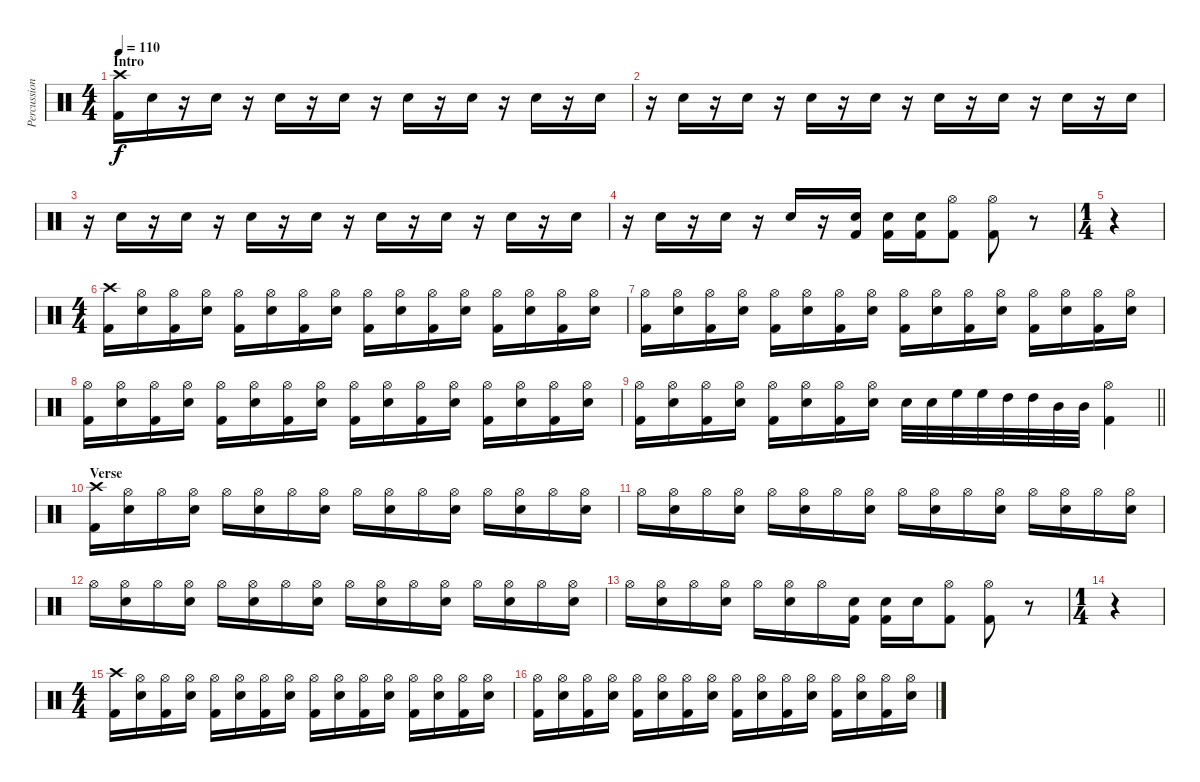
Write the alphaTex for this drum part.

\track ("Percussion" "Percussion") {instrument percussion}
\staff {score}
\articulation defaults
\ts (4 4)
\section ("" "Intro")
\tempo 110
\clef neutral
\ks c
("Crash high (hit)" "Kick (hit) 2").16{dy f} "Snare (hit) 2".16 r.16 "Snare (hit) 2".16 r.16 "Snare (hit) 2".16 r.16 "Snare (hit) 2".16 r.16 "Snare (hit) 2".16 r.16 "Snare (hit) 2".16 r.16 "Snare (hit) 2".16 r.16 "Snare (hit) 2".16 |
r.16 "Snare (hit) 2".16 r.16 "Snare (hit) 2".16 r.16 "Snare (hit) 2".16 r.16 "Snare (hit) 2".16 r.16 "Snare (hit) 2".16 r.16 "Snare (hit) 2".16 r.16 "Snare (hit) 2".16 r.16 "Snare (hit) 2".16 |
r.16 "Snare (hit) 2".16 r.16 "Snare (hit) 2".16 r.16 "Snare (hit) 2".16 r.16 "Snare (hit) 2".16 r.16 "Snare (hit) 2".16 r.16 "Snare (hit) 2".16 r.16 "Snare (hit) 2".16 r.16 "Snare (hit) 2".16 |
r.16 "Snare (hit) 2".16 r.16 "Snare (hit) 2".16 r.16 "Snare (hit) 2".16 r.16 ("Snare (hit) 2" "Kick (hit) 2").16 ("Snare (hit) 2" "Kick (hit) 2").16 ("Snare (hit) 2" "Kick (hit) 2").16 ("Hi-Hat (open)" "Kick (hit) 2").8 ("Hi-Hat (open)" "Kick (hit) 2").8 r.8 |
\ts (1 4)
r.4 |
\ts (4 4)
("Crash high (hit)" "Kick (hit) 2").16 ("Hi-Hat (open)" "Snare (hit) 2").16 ("Hi-Hat (open)" "Kick (hit) 2").16 ("Hi-Hat (open)" "Snare (hit) 2").16 ("Hi-Hat (open)" "Kick (hit) 2").16 ("Hi-Hat (open)" "Snare (hit) 2").16 ("Hi-Hat (open)" "Kick (hit) 2").16 ("Hi-Hat (open)" "Snare (hit) 2").16 ("Hi-Hat (open)" "Kick (hit) 2").16 ("Hi-Hat (open)" "Snare (hit) 2").16 ("Hi-Hat (open)" "Kick (hit) 2").16 ("Hi-Hat (open)" "Snare (hit) 2").16 ("Hi-Hat (open)" "Kick (hit) 2").16 ("Hi-Hat (open)" "Snare (hit) 2").16 ("Hi-Hat (open)" "Kick (hit) 2").16 ("Hi-Hat (open)" "Snare (hit) 2").16 |
("Hi-Hat (open)" "Kick (hit) 2").16 ("Hi-Hat (open)" "Snare (hit) 2").16 ("Hi-Hat (open)" "Kick (hit) 2").16 ("Hi-Hat (open)" "Snare (hit) 2").16 ("Hi-Hat (open)" "Kick (hit) 2").16 ("Hi-Hat (open)" "Snare (hit) 2").16 ("Hi-Hat (open)" "Kick (hit) 2").16 ("Hi-Hat (open)" "Snare (hit) 2").16 ("Hi-Hat (open)" "Kick (hit) 2").16 ("Hi-Hat (open)" "Snare (hit) 2").16 ("Hi-Hat (open)" "Kick (hit) 2").16 ("Hi-Hat (open)" "Snare (hit) 2").16 ("Hi-Hat (open)" "Kick (hit) 2").16 ("Hi-Hat (open)" "Snare (hit) 2").16 ("Hi-Hat (open)" "Kick (hit) 2").16 ("Hi-Hat (open)" "Snare (hit) 2").16 |
("Hi-Hat (open)" "Kick (hit) 2").16 ("Hi-Hat (open)" "Snare (hit) 2").16 ("Hi-Hat (open)" "Kick (hit) 2").16 ("Hi-Hat (open)" "Snare (hit) 2").16 ("Hi-Hat (open)" "Kick (hit) 2").16 ("Hi-Hat (open)" "Snare (hit) 2").16 ("Hi-Hat (open)" "Kick (hit) 2").16 ("Hi-Hat (open)" "Snare (hit) 2").16 ("Hi-Hat (open)" "Kick (hit) 2").16 ("Hi-Hat (open)" "Snare (hit) 2").16 ("Hi-Hat (open)" "Kick (hit) 2").16 ("Hi-Hat (open)" "Snare (hit) 2").16 ("Hi-Hat (open)" "Kick (hit) 2").16 ("Hi-Hat (open)" "Snare (hit) 2").16 ("Hi-Hat (open)" "Kick (hit) 2").16 ("Hi-Hat (open)" "Snare (hit) 2").16 |
\barLineRight lightlight
("Hi-Hat (open)" "Kick (hit) 2").16 ("Hi-Hat (open)" "Snare (hit) 2").16 ("Hi-Hat (open)" "Kick (hit) 2").16 ("Hi-Hat (open)" "Snare (hit) 2").16 ("Hi-Hat (open)" "Kick (hit) 2").16 ("Hi-Hat (open)" "Snare (hit) 2").16 ("Hi-Hat (open)" "Kick (hit) 2").16 ("Hi-Hat (open)" "Snare (hit) 2").16 "Snare (hit) 2".32 "Snare (hit) 2".32 "High Floor Tom (hit)".32 "High Floor Tom (hit)".32 "High Tom (hit)".32 "High Tom (hit)".32 "Mid Tom (hit)".32 "Mid Tom (hit)".32 ("Hi-Hat (open)" "Kick (hit) 2").4 |
\section ("" "Verse")
("Crash high (hit)" "Kick (hit) 2").16 ("Hi-Hat (open)" "Snare (hit) 2").16 "Hi-Hat (open)".16 ("Hi-Hat (open)" "Snare (hit) 2").16 "Hi-Hat (open)".16 ("Hi-Hat (open)" "Snare (hit) 2").16 "Hi-Hat (open)".16 ("Hi-Hat (open)" "Snare (hit) 2").16 "Hi-Hat (open)".16 ("Hi-Hat (open)" "Snare (hit) 2").16 "Hi-Hat (open)".16 ("Hi-Hat (open)" "Snare (hit) 2").16 "Hi-Hat (open)".16 ("Hi-Hat (open)" "Snare (hit) 2").16 "Hi-Hat (open)".16 ("Hi-Hat (open)" "Snare (hit) 2").16 |
"Hi-Hat (open)".16 ("Hi-Hat (open)" "Snare (hit) 2").16 "Hi-Hat (open)".16 ("Hi-Hat (open)" "Snare (hit) 2").16 "Hi-Hat (open)".16 ("Hi-Hat (open)" "Snare (hit) 2").16 "Hi-Hat (open)".16 ("Hi-Hat (open)" "Snare (hit) 2").16 "Hi-Hat (open)".16 ("Hi-Hat (open)" "Snare (hit) 2").16 "Hi-Hat (open)".16 ("Hi-Hat (open)" "Snare (hit) 2").16 "Hi-Hat (open)".16 ("Hi-Hat (open)" "Snare (hit) 2").16 "Hi-Hat (open)".16 ("Hi-Hat (open)" "Snare (hit) 2").16 |
"Hi-Hat (open)".16 ("Hi-Hat (open)" "Snare (hit) 2").16 "Hi-Hat (open)".16 ("Hi-Hat (open)" "Snare (hit) 2").16 "Hi-Hat (open)".16 ("Hi-Hat (open)" "Snare (hit) 2").16 "Hi-Hat (open)".16 ("Hi-Hat (open)" "Snare (hit) 2").16 "Hi-Hat (open)".16 ("Hi-Hat (open)" "Snare (hit) 2").16 "Hi-Hat (open)".16 ("Hi-Hat (open)" "Snare (hit) 2").16 "Hi-Hat (open)".16 ("Hi-Hat (open)" "Snare (hit) 2").16 "Hi-Hat (open)".16 ("Hi-Hat (open)" "Snare (hit) 2").16 |
"Hi-Hat (open)".16 ("Hi-Hat (open)" "Snare (hit) 2").16 "Hi-Hat (open)".16 ("Hi-Hat (open)" "Snare (hit) 2").16 "Hi-Hat (open)".16 ("Hi-Hat (open)" "Snare (hit) 2").16 "Hi-Hat (open)".16 ("Snare (hit) 2" "Kick (hit) 2").16 ("Snare (hit) 2" "Kick (hit) 2").16 "Snare (hit) 2".16 ("Hi-Hat (open)" "Kick (hit) 2").8 ("Hi-Hat (open)" "Kick (hit) 2").8 r.8 |
\ts (1 4)
r.4 |
\ts (4 4)
("Crash high (hit)" "Kick (hit) 2").16 ("Hi-Hat (open)" "Snare (hit) 2").16 ("Hi-Hat (open)" "Kick (hit) 2").16 ("Hi-Hat (open)" "Snare (hit) 2").16 ("Hi-Hat (open)" "Kick (hit) 2").16 ("Hi-Hat (open)" "Snare (hit) 2").16 ("Hi-Hat (open)" "Kick (hit) 2").16 ("Hi-Hat (open)" "Snare (hit) 2").16 ("Hi-Hat (open)" "Kick (hit) 2").16 ("Hi-Hat (open)" "Snare (hit) 2").16 ("Hi-Hat (open)" "Kick (hit) 2").16 ("Hi-Hat (open)" "Snare (hit) 2").16 ("Hi-Hat (open)" "Kick (hit) 2").16 ("Hi-Hat (open)" "Snare (hit) 2").16 ("Hi-Hat (open)" "Kick (hit) 2").16 ("Hi-Hat (open)" "Snare (hit) 2").16 |
("Hi-Hat (open)" "Kick (hit) 2").16 ("Hi-Hat (open)" "Snare (hit) 2").16 ("Hi-Hat (open)" "Kick (hit) 2").16 ("Hi-Hat (open)" "Snare (hit) 2").16 ("Hi-Hat (open)" "Kick (hit) 2").16 ("Hi-Hat (open)" "Snare (hit) 2").16 ("Hi-Hat (open)" "Kick (hit) 2").16 ("Hi-Hat (open)" "Snare (hit) 2").16 ("Hi-Hat (open)" "Kick (hit) 2").16 ("Hi-Hat (open)" "Snare (hit) 2").16 ("Hi-Hat (open)" "Kick (hit) 2").16 ("Hi-Hat (open)" "Snare (hit) 2").16 ("Hi-Hat (open)" "Kick (hit) 2").16 ("Hi-Hat (open)" "Snare (hit) 2").16 ("Hi-Hat (open)" "Kick (hit) 2").16 ("Hi-Hat (open)" "Snare (hit) 2").16
